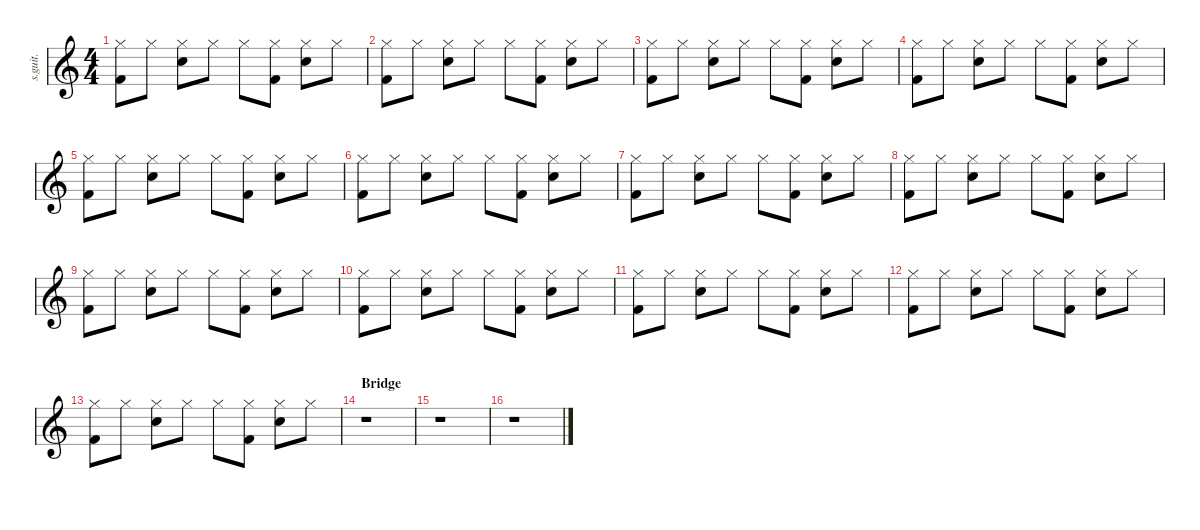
\defaultSystemsLayout 4
\hideDynamics
\bracketExtendMode nobrackets
\track ("Drums (Russel Hobbs)" "s.guit.") {instrument percussion}
\staff {score}
\articulation defaults
\ts (4 4)
\tempo (139 hide)
\clef g2
\ks c
("Hi-Hat (closed)" "Kick (hit) 2").8{lyrics (0 "") lyrics (1 "") lyrics (2 "") lyrics (3 "") lyrics (4 "") dy f} "Hi-Hat (closed)".8{lyrics (0 "") lyrics (1 "") lyrics (2 "") lyrics (3 "") lyrics (4 "")} ("Hi-Hat (closed)" "Snare (hit) 2").8{lyrics (0 "") lyrics (1 "") lyrics (2 "") lyrics (3 "") lyrics (4 "")} "Hi-Hat (closed)".8{lyrics (0 "") lyrics (1 "") lyrics (2 "") lyrics (3 "") lyrics (4 "")} "Hi-Hat (closed)".8{lyrics (0 "") lyrics (1 "") lyrics (2 "") lyrics (3 "") lyrics (4 "")} ("Hi-Hat (closed)" "Kick (hit) 2").8{lyrics (0 "") lyrics (1 "") lyrics (2 "") lyrics (3 "") lyrics (4 "")} ("Hi-Hat (closed)" "Snare (hit) 2").8{lyrics (0 "") lyrics (1 "") lyrics (2 "") lyrics (3 "") lyrics (4 "")} "Hi-Hat (closed)".8{lyrics (0 "") lyrics (1 "") lyrics (2 "") lyrics (3 "") lyrics (4 "")} |
("Hi-Hat (closed)" "Kick (hit) 2").8{lyrics (0 "") lyrics (1 "") lyrics (2 "") lyrics (3 "") lyrics (4 "")} "Hi-Hat (closed)".8{lyrics (0 "") lyrics (1 "") lyrics (2 "") lyrics (3 "") lyrics (4 "")} ("Hi-Hat (closed)" "Snare (hit) 2").8{lyrics (0 "") lyrics (1 "") lyrics (2 "") lyrics (3 "") lyrics (4 "")} "Hi-Hat (closed)".8{lyrics (0 "") lyrics (1 "") lyrics (2 "") lyrics (3 "") lyrics (4 "")} "Hi-Hat (closed)".8{lyrics (0 "") lyrics (1 "") lyrics (2 "") lyrics (3 "") lyrics (4 "")} ("Hi-Hat (closed)" "Kick (hit) 2").8{lyrics (0 "") lyrics (1 "") lyrics (2 "") lyrics (3 "") lyrics (4 "")} ("Hi-Hat (closed)" "Snare (hit) 2").8{lyrics (0 "") lyrics (1 "") lyrics (2 "") lyrics (3 "") lyrics (4 "")} "Hi-Hat (closed)".8{lyrics (0 "") lyrics (1 "") lyrics (2 "") lyrics (3 "") lyrics (4 "")} |
("Hi-Hat (closed)" "Kick (hit) 2").8{lyrics (0 "") lyrics (1 "") lyrics (2 "") lyrics (3 "") lyrics (4 "")} "Hi-Hat (closed)".8{lyrics (0 "") lyrics (1 "") lyrics (2 "") lyrics (3 "") lyrics (4 "")} ("Hi-Hat (closed)" "Snare (hit) 2").8{lyrics (0 "") lyrics (1 "") lyrics (2 "") lyrics (3 "") lyrics (4 "")} "Hi-Hat (closed)".8{lyrics (0 "") lyrics (1 "") lyrics (2 "") lyrics (3 "") lyrics (4 "")} "Hi-Hat (closed)".8{lyrics (0 "") lyrics (1 "") lyrics (2 "") lyrics (3 "") lyrics (4 "")} ("Hi-Hat (closed)" "Kick (hit) 2").8{lyrics (0 "") lyrics (1 "") lyrics (2 "") lyrics (3 "") lyrics (4 "")} ("Hi-Hat (closed)" "Snare (hit) 2").8{lyrics (0 "") lyrics (1 "") lyrics (2 "") lyrics (3 "") lyrics (4 "")} "Hi-Hat (closed)".8{lyrics (0 "") lyrics (1 "") lyrics (2 "") lyrics (3 "") lyrics (4 "")} |
("Hi-Hat (closed)" "Kick (hit) 2").8{lyrics (0 "") lyrics (1 "") lyrics (2 "") lyrics (3 "") lyrics (4 "")} "Hi-Hat (closed)".8{lyrics (0 "") lyrics (1 "") lyrics (2 "") lyrics (3 "") lyrics (4 "")} ("Hi-Hat (closed)" "Snare (hit) 2").8{lyrics (0 "") lyrics (1 "") lyrics (2 "") lyrics (3 "") lyrics (4 "")} "Hi-Hat (closed)".8{lyrics (0 "") lyrics (1 "") lyrics (2 "") lyrics (3 "") lyrics (4 "")} "Hi-Hat (closed)".8{lyrics (0 "") lyrics (1 "") lyrics (2 "") lyrics (3 "") lyrics (4 "")} ("Hi-Hat (closed)" "Kick (hit) 2").8{lyrics (0 "") lyrics (1 "") lyrics (2 "") lyrics (3 "") lyrics (4 "")} ("Hi-Hat (closed)" "Snare (hit) 2").8{lyrics (0 "") lyrics (1 "") lyrics (2 "") lyrics (3 "") lyrics (4 "")} "Hi-Hat (closed)".8{lyrics (0 "") lyrics (1 "") lyrics (2 "") lyrics (3 "") lyrics (4 "")} |
("Hi-Hat (closed)" "Kick (hit) 2").8{lyrics (0 "") lyrics (1 "") lyrics (2 "") lyrics (3 "") lyrics (4 "")} "Hi-Hat (closed)".8{lyrics (0 "") lyrics (1 "") lyrics (2 "") lyrics (3 "") lyrics (4 "")} ("Hi-Hat (closed)" "Snare (hit) 2").8{lyrics (0 "") lyrics (1 "") lyrics (2 "") lyrics (3 "") lyrics (4 "")} "Hi-Hat (closed)".8{lyrics (0 "") lyrics (1 "") lyrics (2 "") lyrics (3 "") lyrics (4 "")} "Hi-Hat (closed)".8{lyrics (0 "") lyrics (1 "") lyrics (2 "") lyrics (3 "") lyrics (4 "")} ("Hi-Hat (closed)" "Kick (hit) 2").8{lyrics (0 "") lyrics (1 "") lyrics (2 "") lyrics (3 "") lyrics (4 "")} ("Hi-Hat (closed)" "Snare (hit) 2").8{lyrics (0 "") lyrics (1 "") lyrics (2 "") lyrics (3 "") lyrics (4 "")} "Hi-Hat (closed)".8{lyrics (0 "") lyrics (1 "") lyrics (2 "") lyrics (3 "") lyrics (4 "")} |
("Hi-Hat (closed)" "Kick (hit) 2").8{lyrics (0 "") lyrics (1 "") lyrics (2 "") lyrics (3 "") lyrics (4 "")} "Hi-Hat (closed)".8{lyrics (0 "") lyrics (1 "") lyrics (2 "") lyrics (3 "") lyrics (4 "")} ("Hi-Hat (closed)" "Snare (hit) 2").8{lyrics (0 "") lyrics (1 "") lyrics (2 "") lyrics (3 "") lyrics (4 "")} "Hi-Hat (closed)".8{lyrics (0 "") lyrics (1 "") lyrics (2 "") lyrics (3 "") lyrics (4 "")} "Hi-Hat (closed)".8{lyrics (0 "") lyrics (1 "") lyrics (2 "") lyrics (3 "") lyrics (4 "")} ("Hi-Hat (closed)" "Kick (hit) 2").8{lyrics (0 "") lyrics (1 "") lyrics (2 "") lyrics (3 "") lyrics (4 "")} ("Hi-Hat (closed)" "Snare (hit) 2").8{lyrics (0 "") lyrics (1 "") lyrics (2 "") lyrics (3 "") lyrics (4 "")} "Hi-Hat (closed)".8{lyrics (0 "") lyrics (1 "") lyrics (2 "") lyrics (3 "") lyrics (4 "")} |
("Hi-Hat (closed)" "Kick (hit) 2").8{lyrics (0 "") lyrics (1 "") lyrics (2 "") lyrics (3 "") lyrics (4 "")} "Hi-Hat (closed)".8{lyrics (0 "") lyrics (1 "") lyrics (2 "") lyrics (3 "") lyrics (4 "")} ("Hi-Hat (closed)" "Snare (hit) 2").8{lyrics (0 "") lyrics (1 "") lyrics (2 "") lyrics (3 "") lyrics (4 "")} "Hi-Hat (closed)".8{lyrics (0 "") lyrics (1 "") lyrics (2 "") lyrics (3 "") lyrics (4 "")} "Hi-Hat (closed)".8{lyrics (0 "") lyrics (1 "") lyrics (2 "") lyrics (3 "") lyrics (4 "")} ("Hi-Hat (closed)" "Kick (hit) 2").8{lyrics (0 "") lyrics (1 "") lyrics (2 "") lyrics (3 "") lyrics (4 "")} ("Hi-Hat (closed)" "Snare (hit) 2").8{lyrics (0 "") lyrics (1 "") lyrics (2 "") lyrics (3 "") lyrics (4 "")} "Hi-Hat (closed)".8{lyrics (0 "") lyrics (1 "") lyrics (2 "") lyrics (3 "") lyrics (4 "")} |
("Hi-Hat (closed)" "Kick (hit) 2").8{lyrics (0 "") lyrics (1 "") lyrics (2 "") lyrics (3 "") lyrics (4 "")} "Hi-Hat (closed)".8{lyrics (0 "") lyrics (1 "") lyrics (2 "") lyrics (3 "") lyrics (4 "")} ("Hi-Hat (closed)" "Snare (hit) 2").8{lyrics (0 "") lyrics (1 "") lyrics (2 "") lyrics (3 "") lyrics (4 "")} "Hi-Hat (closed)".8{lyrics (0 "") lyrics (1 "") lyrics (2 "") lyrics (3 "") lyrics (4 "")} "Hi-Hat (closed)".8{lyrics (0 "") lyrics (1 "") lyrics (2 "") lyrics (3 "") lyrics (4 "")} ("Hi-Hat (closed)" "Kick (hit) 2").8{lyrics (0 "") lyrics (1 "") lyrics (2 "") lyrics (3 "") lyrics (4 "")} ("Hi-Hat (closed)" "Snare (hit) 2").8{lyrics (0 "") lyrics (1 "") lyrics (2 "") lyrics (3 "") lyrics (4 "")} "Hi-Hat (closed)".8{lyrics (0 "") lyrics (1 "") lyrics (2 "") lyrics (3 "") lyrics (4 "")} |
("Hi-Hat (closed)" "Kick (hit) 2").8{lyrics (0 "") lyrics (1 "") lyrics (2 "") lyrics (3 "") lyrics (4 "")} "Hi-Hat (closed)".8{lyrics (0 "") lyrics (1 "") lyrics (2 "") lyrics (3 "") lyrics (4 "")} ("Hi-Hat (closed)" "Snare (hit) 2").8{lyrics (0 "") lyrics (1 "") lyrics (2 "") lyrics (3 "") lyrics (4 "")} "Hi-Hat (closed)".8{lyrics (0 "") lyrics (1 "") lyrics (2 "") lyrics (3 "") lyrics (4 "")} "Hi-Hat (closed)".8{lyrics (0 "") lyrics (1 "") lyrics (2 "") lyrics (3 "") lyrics (4 "")} ("Hi-Hat (closed)" "Kick (hit) 2").8{lyrics (0 "") lyrics (1 "") lyrics (2 "") lyrics (3 "") lyrics (4 "")} ("Hi-Hat (closed)" "Snare (hit) 2").8{lyrics (0 "") lyrics (1 "") lyrics (2 "") lyrics (3 "") lyrics (4 "")} "Hi-Hat (closed)".8{lyrics (0 "") lyrics (1 "") lyrics (2 "") lyrics (3 "") lyrics (4 "")} |
("Hi-Hat (closed)" "Kick (hit) 2").8{lyrics (0 "") lyrics (1 "") lyrics (2 "") lyrics (3 "") lyrics (4 "")} "Hi-Hat (closed)".8{lyrics (0 "") lyrics (1 "") lyrics (2 "") lyrics (3 "") lyrics (4 "")} ("Hi-Hat (closed)" "Snare (hit) 2").8{lyrics (0 "") lyrics (1 "") lyrics (2 "") lyrics (3 "") lyrics (4 "")} "Hi-Hat (closed)".8{lyrics (0 "") lyrics (1 "") lyrics (2 "") lyrics (3 "") lyrics (4 "")} "Hi-Hat (closed)".8{lyrics (0 "") lyrics (1 "") lyrics (2 "") lyrics (3 "") lyrics (4 "")} ("Hi-Hat (closed)" "Kick (hit) 2").8{lyrics (0 "") lyrics (1 "") lyrics (2 "") lyrics (3 "") lyrics (4 "")} ("Hi-Hat (closed)" "Snare (hit) 2").8{lyrics (0 "") lyrics (1 "") lyrics (2 "") lyrics (3 "") lyrics (4 "")} "Hi-Hat (closed)".8{lyrics (0 "") lyrics (1 "") lyrics (2 "") lyrics (3 "") lyrics (4 "")} |
("Hi-Hat (closed)" "Kick (hit) 2").8{lyrics (0 "") lyrics (1 "") lyrics (2 "") lyrics (3 "") lyrics (4 "")} "Hi-Hat (closed)".8{lyrics (0 "") lyrics (1 "") lyrics (2 "") lyrics (3 "") lyrics (4 "")} ("Hi-Hat (closed)" "Snare (hit) 2").8{lyrics (0 "") lyrics (1 "") lyrics (2 "") lyrics (3 "") lyrics (4 "")} "Hi-Hat (closed)".8{lyrics (0 "") lyrics (1 "") lyrics (2 "") lyrics (3 "") lyrics (4 "")} "Hi-Hat (closed)".8{lyrics (0 "") lyrics (1 "") lyrics (2 "") lyrics (3 "") lyrics (4 "")} ("Hi-Hat (closed)" "Kick (hit) 2").8{lyrics (0 "") lyrics (1 "") lyrics (2 "") lyrics (3 "") lyrics (4 "")} ("Hi-Hat (closed)" "Snare (hit) 2").8{lyrics (0 "") lyrics (1 "") lyrics (2 "") lyrics (3 "") lyrics (4 "")} "Hi-Hat (closed)".8{lyrics (0 "") lyrics (1 "") lyrics (2 "") lyrics (3 "") lyrics (4 "")} |
("Hi-Hat (closed)" "Kick (hit) 2").8{lyrics (0 "") lyrics (1 "") lyrics (2 "") lyrics (3 "") lyrics (4 "")} "Hi-Hat (closed)".8{lyrics (0 "") lyrics (1 "") lyrics (2 "") lyrics (3 "") lyrics (4 "")} ("Hi-Hat (closed)" "Snare (hit) 2").8{lyrics (0 "") lyrics (1 "") lyrics (2 "") lyrics (3 "") lyrics (4 "")} "Hi-Hat (closed)".8{lyrics (0 "") lyrics (1 "") lyrics (2 "") lyrics (3 "") lyrics (4 "")} "Hi-Hat (closed)".8{lyrics (0 "") lyrics (1 "") lyrics (2 "") lyrics (3 "") lyrics (4 "")} ("Hi-Hat (closed)" "Kick (hit) 2").8{lyrics (0 "") lyrics (1 "") lyrics (2 "") lyrics (3 "") lyrics (4 "")} ("Hi-Hat (closed)" "Snare (hit) 2").8{lyrics (0 "") lyrics (1 "") lyrics (2 "") lyrics (3 "") lyrics (4 "")} "Hi-Hat (closed)".8{lyrics (0 "") lyrics (1 "") lyrics (2 "") lyrics (3 "") lyrics (4 "")} |
("Hi-Hat (closed)" "Kick (hit) 2").8{lyrics (0 "") lyrics (1 "") lyrics (2 "") lyrics (3 "") lyrics (4 "")} "Hi-Hat (closed)".8{lyrics (0 "") lyrics (1 "") lyrics (2 "") lyrics (3 "") lyrics (4 "")} ("Hi-Hat (closed)" "Snare (hit) 2").8{lyrics (0 "") lyrics (1 "") lyrics (2 "") lyrics (3 "") lyrics (4 "")} "Hi-Hat (closed)".8{lyrics (0 "") lyrics (1 "") lyrics (2 "") lyrics (3 "") lyrics (4 "")} "Hi-Hat (closed)".8{lyrics (0 "") lyrics (1 "") lyrics (2 "") lyrics (3 "") lyrics (4 "")} ("Hi-Hat (closed)" "Kick (hit) 2").8{lyrics (0 "") lyrics (1 "") lyrics (2 "") lyrics (3 "") lyrics (4 "")} ("Hi-Hat (closed)" "Snare (hit) 2").8{lyrics (0 "") lyrics (1 "") lyrics (2 "") lyrics (3 "") lyrics (4 "")} "Hi-Hat (closed)".8{lyrics (0 "") lyrics (1 "") lyrics (2 "") lyrics (3 "") lyrics (4 "")} |
\section ("" "Bridge")
r.1 |
r.1 |
r.1
